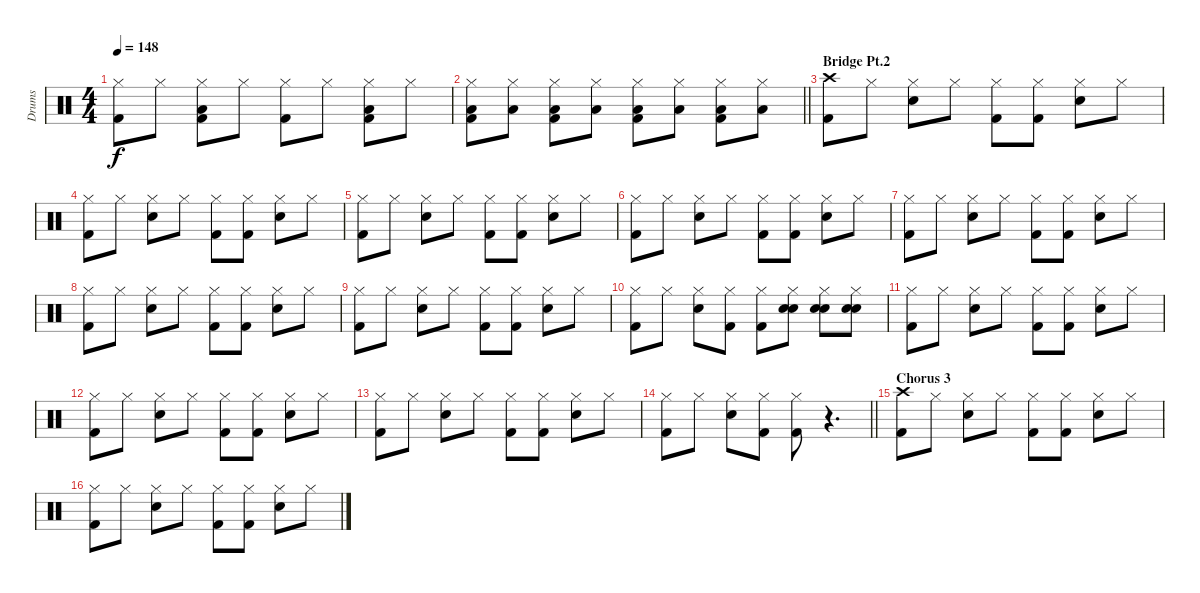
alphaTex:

\track ("Drums " "Drums ") {instrument percussion}
\staff {score}
\articulation defaults
\ts (4 4)
\tempo 148
\clef neutral
\ks c
("Hi-Hat (closed)" "Kick (hit) 2").8{dy f} "Hi-Hat (closed)".8 ("Hi-Hat (closed)" "Low Floor Tom (hit)" "Kick (hit) 2").8 "Hi-Hat (closed)".8 ("Hi-Hat (closed)" "Kick (hit) 2").8 "Hi-Hat (closed)".8 ("Hi-Hat (closed)" "Low Floor Tom (hit)" "Kick (hit) 2").8 "Hi-Hat (closed)".8 |
\barLineRight lightlight
("Hi-Hat (closed)" "Low Floor Tom (hit)" "Kick (hit) 2").8 ("Hi-Hat (closed)" "Low Floor Tom (hit)").8 ("Hi-Hat (closed)" "Low Floor Tom (hit)" "Kick (hit) 2").8 ("Hi-Hat (closed)" "Low Floor Tom (hit)").8 ("Hi-Hat (closed)" "Low Floor Tom (hit)" "Kick (hit) 2").8 ("Hi-Hat (closed)" "Low Floor Tom (hit)").8 ("Hi-Hat (closed)" "Low Floor Tom (hit)" "Kick (hit) 2").8 ("Hi-Hat (closed)" "Low Floor Tom (hit)").8 |
\section ("" "Bridge Pt.2")
("Crash high (hit)" "Kick (hit) 2").8 "Hi-Hat (closed)".8 ("Hi-Hat (closed)" "Snare (hit) 2").8 "Hi-Hat (closed)".8 ("Hi-Hat (closed)" "Kick (hit) 2").8 ("Hi-Hat (closed)" "Kick (hit) 2").8 ("Hi-Hat (closed)" "Snare (hit) 2").8 "Hi-Hat (closed)".8 |
("Hi-Hat (closed)" "Kick (hit) 2").8 "Hi-Hat (closed)".8 ("Hi-Hat (closed)" "Snare (hit) 2").8 "Hi-Hat (closed)".8 ("Hi-Hat (closed)" "Kick (hit) 2").8 ("Hi-Hat (closed)" "Kick (hit) 2").8 ("Hi-Hat (closed)" "Snare (hit) 2").8 "Hi-Hat (closed)".8 |
("Hi-Hat (closed)" "Kick (hit) 2").8 "Hi-Hat (closed)".8 ("Hi-Hat (closed)" "Snare (hit) 2").8 "Hi-Hat (closed)".8 ("Hi-Hat (closed)" "Kick (hit) 2").8 ("Hi-Hat (closed)" "Kick (hit) 2").8 ("Hi-Hat (closed)" "Snare (hit) 2").8 "Hi-Hat (closed)".8 |
("Hi-Hat (closed)" "Kick (hit) 2").8 "Hi-Hat (closed)".8 ("Hi-Hat (closed)" "Snare (hit) 2").8 "Hi-Hat (closed)".8 ("Hi-Hat (closed)" "Kick (hit) 2").8 ("Hi-Hat (closed)" "Kick (hit) 2").8 ("Hi-Hat (closed)" "Snare (hit) 2").8 "Hi-Hat (closed)".8 |
("Hi-Hat (closed)" "Kick (hit) 2").8 "Hi-Hat (closed)".8 ("Hi-Hat (closed)" "Snare (hit) 2").8 "Hi-Hat (closed)".8 ("Hi-Hat (closed)" "Kick (hit) 2").8 ("Hi-Hat (closed)" "Kick (hit) 2").8 ("Hi-Hat (closed)" "Snare (hit) 2").8 "Hi-Hat (closed)".8 |
("Hi-Hat (closed)" "Kick (hit) 2").8 "Hi-Hat (closed)".8 ("Hi-Hat (closed)" "Snare (hit) 2").8 "Hi-Hat (closed)".8 ("Hi-Hat (closed)" "Kick (hit) 2").8 ("Hi-Hat (closed)" "Kick (hit) 2").8 ("Hi-Hat (closed)" "Snare (hit) 2").8 "Hi-Hat (closed)".8 |
("Hi-Hat (closed)" "Kick (hit) 2").8 "Hi-Hat (closed)".8 ("Hi-Hat (closed)" "Snare (hit) 2").8 "Hi-Hat (closed)".8 ("Hi-Hat (closed)" "Kick (hit) 2").8 ("Hi-Hat (closed)" "Kick (hit) 2").8 ("Hi-Hat (closed)" "Snare (hit) 2").8 "Hi-Hat (closed)".8 |
("Hi-Hat (closed)" "Kick (hit) 2").8 "Hi-Hat (closed)".8 ("Hi-Hat (closed)" "Snare (hit) 2").8 ("Hi-Hat (closed)" "Kick (hit) 2").8 ("Hi-Hat (closed)" "Kick (hit) 2").8 ("Hand Clap (hit)" "Hi-Hat (closed)" "Snare (hit) 2").8 ("Hand Clap (hit)" "Hi-Hat (closed)" "Snare (hit) 2").8 ("Hand Clap (hit)" "Hi-Hat (closed)" "Snare (hit) 2").8 |
("Hi-Hat (closed)" "Kick (hit) 2").8 "Hi-Hat (closed)".8 ("Hi-Hat (closed)" "Snare (hit) 2").8 "Hi-Hat (closed)".8 ("Hi-Hat (closed)" "Kick (hit) 2").8 ("Hi-Hat (closed)" "Kick (hit) 2").8 ("Hi-Hat (closed)" "Snare (hit) 2").8 "Hi-Hat (closed)".8 |
("Hi-Hat (closed)" "Kick (hit) 2").8 "Hi-Hat (closed)".8 ("Hi-Hat (closed)" "Snare (hit) 2").8 "Hi-Hat (closed)".8 ("Hi-Hat (closed)" "Kick (hit) 2").8 ("Hi-Hat (closed)" "Kick (hit) 2").8 ("Hi-Hat (closed)" "Snare (hit) 2").8 "Hi-Hat (closed)".8 |
("Hi-Hat (closed)" "Kick (hit) 2").8 "Hi-Hat (closed)".8 ("Hi-Hat (closed)" "Snare (hit) 2").8 "Hi-Hat (closed)".8 ("Hi-Hat (closed)" "Kick (hit) 2").8 ("Hi-Hat (closed)" "Kick (hit) 2").8 ("Hi-Hat (closed)" "Snare (hit) 2").8 "Hi-Hat (closed)".8 |
\barLineRight lightlight
("Hi-Hat (closed)" "Kick (hit) 2").8 "Hi-Hat (closed)".8 ("Hi-Hat (closed)" "Snare (hit) 2").8 ("Hi-Hat (closed)" "Kick (hit) 2").8 ("Hi-Hat (closed)" "Kick (hit) 2").8 r.4{d} |
\section ("" "Chorus 3")
("Crash high (hit)" "Kick (hit) 2").8 "Hi-Hat (closed)".8 ("Hi-Hat (closed)" "Snare (hit) 2").8 "Hi-Hat (closed)".8 ("Hi-Hat (closed)" "Kick (hit) 2").8 ("Hi-Hat (closed)" "Kick (hit) 2").8 ("Hi-Hat (closed)" "Snare (hit) 2").8 "Hi-Hat (closed)".8 |
("Hi-Hat (closed)" "Kick (hit) 2").8 "Hi-Hat (closed)".8 ("Hi-Hat (closed)" "Snare (hit) 2").8 "Hi-Hat (closed)".8 ("Hi-Hat (closed)" "Kick (hit) 2").8 ("Hi-Hat (closed)" "Kick (hit) 2").8 ("Hi-Hat (closed)" "Snare (hit) 2").8 "Hi-Hat (closed)".8
